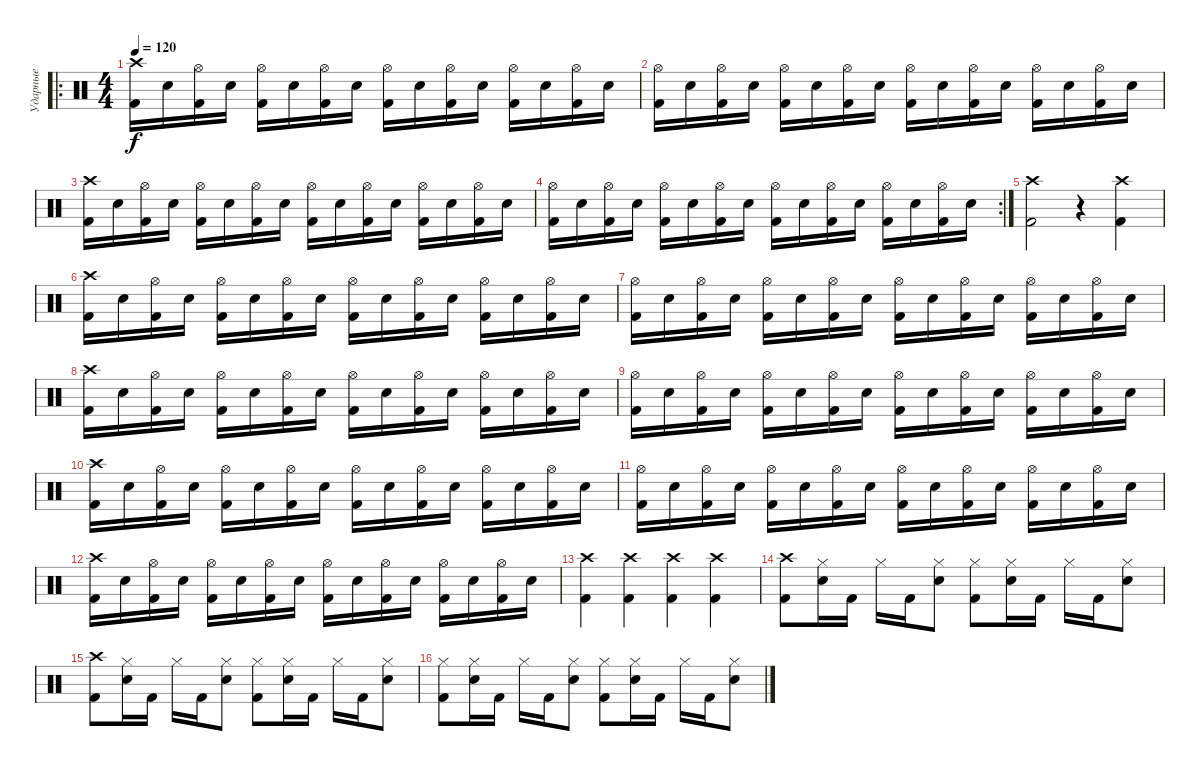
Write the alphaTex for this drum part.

\track ("Ударные" "Ударные") {instrument percussion}
\staff {score}
\articulation defaults
\ro
\ts (4 4)
\tempo 120
\clef neutral
\ks c
("Kick (hit) 2" "Crash high (hit)").16{dy f} "Electric Snare (hit)".16 ("Kick (hit) 2" "Hi-Hat (open)").16 "Electric Snare (hit)".16 ("Kick (hit) 2" "Hi-Hat (open)").16 "Electric Snare (hit)".16 ("Kick (hit) 2" "Hi-Hat (open)").16 "Electric Snare (hit)".16 ("Kick (hit) 2" "Hi-Hat (open)").16 "Electric Snare (hit)".16 ("Kick (hit) 2" "Hi-Hat (open)").16 "Electric Snare (hit)".16 ("Kick (hit) 2" "Hi-Hat (open)").16 "Electric Snare (hit)".16 ("Kick (hit) 2" "Hi-Hat (open)").16 "Electric Snare (hit)".16 |
("Kick (hit) 2" "Hi-Hat (open)").16 "Electric Snare (hit)".16 ("Kick (hit) 2" "Hi-Hat (open)").16 "Electric Snare (hit)".16 ("Kick (hit) 2" "Hi-Hat (open)").16 "Electric Snare (hit)".16 ("Kick (hit) 2" "Hi-Hat (open)").16 "Electric Snare (hit)".16 ("Kick (hit) 2" "Hi-Hat (open)").16 "Electric Snare (hit)".16 ("Kick (hit) 2" "Hi-Hat (open)").16 "Electric Snare (hit)".16 ("Kick (hit) 2" "Hi-Hat (open)").16 "Electric Snare (hit)".16 ("Kick (hit) 2" "Hi-Hat (open)").16 "Electric Snare (hit)".16 |
("Kick (hit) 2" "Crash high (hit)").16 "Electric Snare (hit)".16 ("Kick (hit) 2" "Hi-Hat (open)").16 "Electric Snare (hit)".16 ("Kick (hit) 2" "Hi-Hat (open)").16 "Electric Snare (hit)".16 ("Kick (hit) 2" "Hi-Hat (open)").16 "Electric Snare (hit)".16 ("Kick (hit) 2" "Hi-Hat (open)").16 "Electric Snare (hit)".16 ("Kick (hit) 2" "Hi-Hat (open)").16 "Electric Snare (hit)".16 ("Kick (hit) 2" "Hi-Hat (open)").16 "Electric Snare (hit)".16 ("Kick (hit) 2" "Hi-Hat (open)").16 "Electric Snare (hit)".16 |
\rc 2
("Kick (hit) 2" "Hi-Hat (open)").16 "Electric Snare (hit)".16 ("Kick (hit) 2" "Hi-Hat (open)").16 "Electric Snare (hit)".16 ("Kick (hit) 2" "Hi-Hat (open)").16 "Electric Snare (hit)".16 ("Kick (hit) 2" "Hi-Hat (open)").16 "Electric Snare (hit)".16 ("Kick (hit) 2" "Hi-Hat (open)").16 "Electric Snare (hit)".16 ("Kick (hit) 2" "Hi-Hat (open)").16 "Electric Snare (hit)".16 ("Kick (hit) 2" "Hi-Hat (open)").16 "Electric Snare (hit)".16 ("Kick (hit) 2" "Hi-Hat (open)").16 "Electric Snare (hit)".16 |
("Kick (hit) 2" "Crash high (hit)").2 r.4 ("Kick (hit) 2" "Crash high (hit)").4 |
("Kick (hit) 2" "Crash high (hit)").16 "Electric Snare (hit)".16 ("Kick (hit) 2" "Hi-Hat (open)").16 "Electric Snare (hit)".16 ("Kick (hit) 2" "Hi-Hat (open)").16 "Electric Snare (hit)".16 ("Kick (hit) 2" "Hi-Hat (open)").16 "Electric Snare (hit)".16 ("Kick (hit) 2" "Hi-Hat (open)").16 "Electric Snare (hit)".16 ("Kick (hit) 2" "Hi-Hat (open)").16 "Electric Snare (hit)".16 ("Kick (hit) 2" "Hi-Hat (open)").16 "Electric Snare (hit)".16 ("Kick (hit) 2" "Hi-Hat (open)").16 "Electric Snare (hit)".16 |
("Kick (hit) 2" "Hi-Hat (open)").16 "Electric Snare (hit)".16 ("Kick (hit) 2" "Hi-Hat (open)").16 "Electric Snare (hit)".16 ("Kick (hit) 2" "Hi-Hat (open)").16 "Electric Snare (hit)".16 ("Kick (hit) 2" "Hi-Hat (open)").16 "Electric Snare (hit)".16 ("Kick (hit) 2" "Hi-Hat (open)").16 "Electric Snare (hit)".16 ("Kick (hit) 2" "Hi-Hat (open)").16 "Electric Snare (hit)".16 ("Kick (hit) 2" "Hi-Hat (open)").16 "Electric Snare (hit)".16 ("Kick (hit) 2" "Hi-Hat (open)").16 "Electric Snare (hit)".16 |
("Kick (hit) 2" "Crash high (hit)").16 "Electric Snare (hit)".16 ("Kick (hit) 2" "Hi-Hat (open)").16 "Electric Snare (hit)".16 ("Kick (hit) 2" "Hi-Hat (open)").16 "Electric Snare (hit)".16 ("Kick (hit) 2" "Hi-Hat (open)").16 "Electric Snare (hit)".16 ("Kick (hit) 2" "Hi-Hat (open)").16 "Electric Snare (hit)".16 ("Kick (hit) 2" "Hi-Hat (open)").16 "Electric Snare (hit)".16 ("Kick (hit) 2" "Hi-Hat (open)").16 "Electric Snare (hit)".16 ("Kick (hit) 2" "Hi-Hat (open)").16 "Electric Snare (hit)".16 |
("Kick (hit) 2" "Hi-Hat (open)").16 "Electric Snare (hit)".16 ("Kick (hit) 2" "Hi-Hat (open)").16 "Electric Snare (hit)".16 ("Kick (hit) 2" "Hi-Hat (open)").16 "Electric Snare (hit)".16 ("Kick (hit) 2" "Hi-Hat (open)").16 "Electric Snare (hit)".16 ("Kick (hit) 2" "Hi-Hat (open)").16 "Electric Snare (hit)".16 ("Kick (hit) 2" "Hi-Hat (open)").16 "Electric Snare (hit)".16 ("Kick (hit) 2" "Hi-Hat (open)").16 "Electric Snare (hit)".16 ("Kick (hit) 2" "Hi-Hat (open)").16 "Electric Snare (hit)".16 |
("Kick (hit) 2" "Crash high (hit)").16 "Electric Snare (hit)".16 ("Kick (hit) 2" "Hi-Hat (open)").16 "Electric Snare (hit)".16 ("Kick (hit) 2" "Hi-Hat (open)").16 "Electric Snare (hit)".16 ("Kick (hit) 2" "Hi-Hat (open)").16 "Electric Snare (hit)".16 ("Kick (hit) 2" "Hi-Hat (open)").16 "Electric Snare (hit)".16 ("Kick (hit) 2" "Hi-Hat (open)").16 "Electric Snare (hit)".16 ("Kick (hit) 2" "Hi-Hat (open)").16 "Electric Snare (hit)".16 ("Kick (hit) 2" "Hi-Hat (open)").16 "Electric Snare (hit)".16 |
("Kick (hit) 2" "Hi-Hat (open)").16 "Electric Snare (hit)".16 ("Kick (hit) 2" "Hi-Hat (open)").16 "Electric Snare (hit)".16 ("Kick (hit) 2" "Hi-Hat (open)").16 "Electric Snare (hit)".16 ("Kick (hit) 2" "Hi-Hat (open)").16 "Electric Snare (hit)".16 ("Kick (hit) 2" "Hi-Hat (open)").16 "Electric Snare (hit)".16 ("Kick (hit) 2" "Hi-Hat (open)").16 "Electric Snare (hit)".16 ("Kick (hit) 2" "Hi-Hat (open)").16 "Electric Snare (hit)".16 ("Kick (hit) 2" "Hi-Hat (open)").16 "Electric Snare (hit)".16 |
("Kick (hit) 2" "Crash high (hit)").16 "Electric Snare (hit)".16 ("Kick (hit) 2" "Hi-Hat (open)").16 "Electric Snare (hit)".16 ("Kick (hit) 2" "Hi-Hat (open)").16 "Electric Snare (hit)".16 ("Kick (hit) 2" "Hi-Hat (open)").16 "Electric Snare (hit)".16 ("Kick (hit) 2" "Hi-Hat (open)").16 "Electric Snare (hit)".16 ("Kick (hit) 2" "Hi-Hat (open)").16 "Electric Snare (hit)".16 ("Kick (hit) 2" "Hi-Hat (open)").16 "Electric Snare (hit)".16 ("Kick (hit) 2" "Hi-Hat (open)").16 "Electric Snare (hit)".16 |
("Kick (hit) 2" "Crash high (hit)").4 ("Kick (hit) 2" "Crash high (hit)").4 ("Kick (hit) 2" "Crash high (hit)").4 ("Kick (hit) 2" "Crash high (hit)").4 |
("Kick (hit) 2" "Crash high (hit)").8 ("Electric Snare (hit)" "Hi-Hat (closed)").16 "Kick (hit) 2".16 "Hi-Hat (closed)".16 "Kick (hit) 2".16 ("Electric Snare (hit)" "Hi-Hat (closed)").8 ("Kick (hit) 2" "Hi-Hat (closed)").8 ("Electric Snare (hit)" "Hi-Hat (closed)").16 "Kick (hit) 2".16 "Hi-Hat (closed)".16 "Kick (hit) 2".16 ("Electric Snare (hit)" "Hi-Hat (closed)").8 |
("Kick (hit) 2" "Crash high (hit)").8 ("Electric Snare (hit)" "Hi-Hat (closed)").16 "Kick (hit) 2".16 "Hi-Hat (closed)".16 "Kick (hit) 2".16 ("Electric Snare (hit)" "Hi-Hat (closed)").8 ("Kick (hit) 2" "Hi-Hat (closed)").8 ("Electric Snare (hit)" "Hi-Hat (closed)").16 "Kick (hit) 2".16 "Hi-Hat (closed)".16 "Kick (hit) 2".16 ("Electric Snare (hit)" "Hi-Hat (closed)").8 |
("Kick (hit) 2" "Hi-Hat (closed)").8 ("Electric Snare (hit)" "Hi-Hat (closed)").16 "Kick (hit) 2".16 "Hi-Hat (closed)".16 "Kick (hit) 2".16 ("Electric Snare (hit)" "Hi-Hat (closed)").8 ("Kick (hit) 2" "Hi-Hat (closed)").8 ("Electric Snare (hit)" "Hi-Hat (closed)").16 "Kick (hit) 2".16 "Hi-Hat (closed)".16 "Kick (hit) 2".16 ("Electric Snare (hit)" "Hi-Hat (closed)").8
